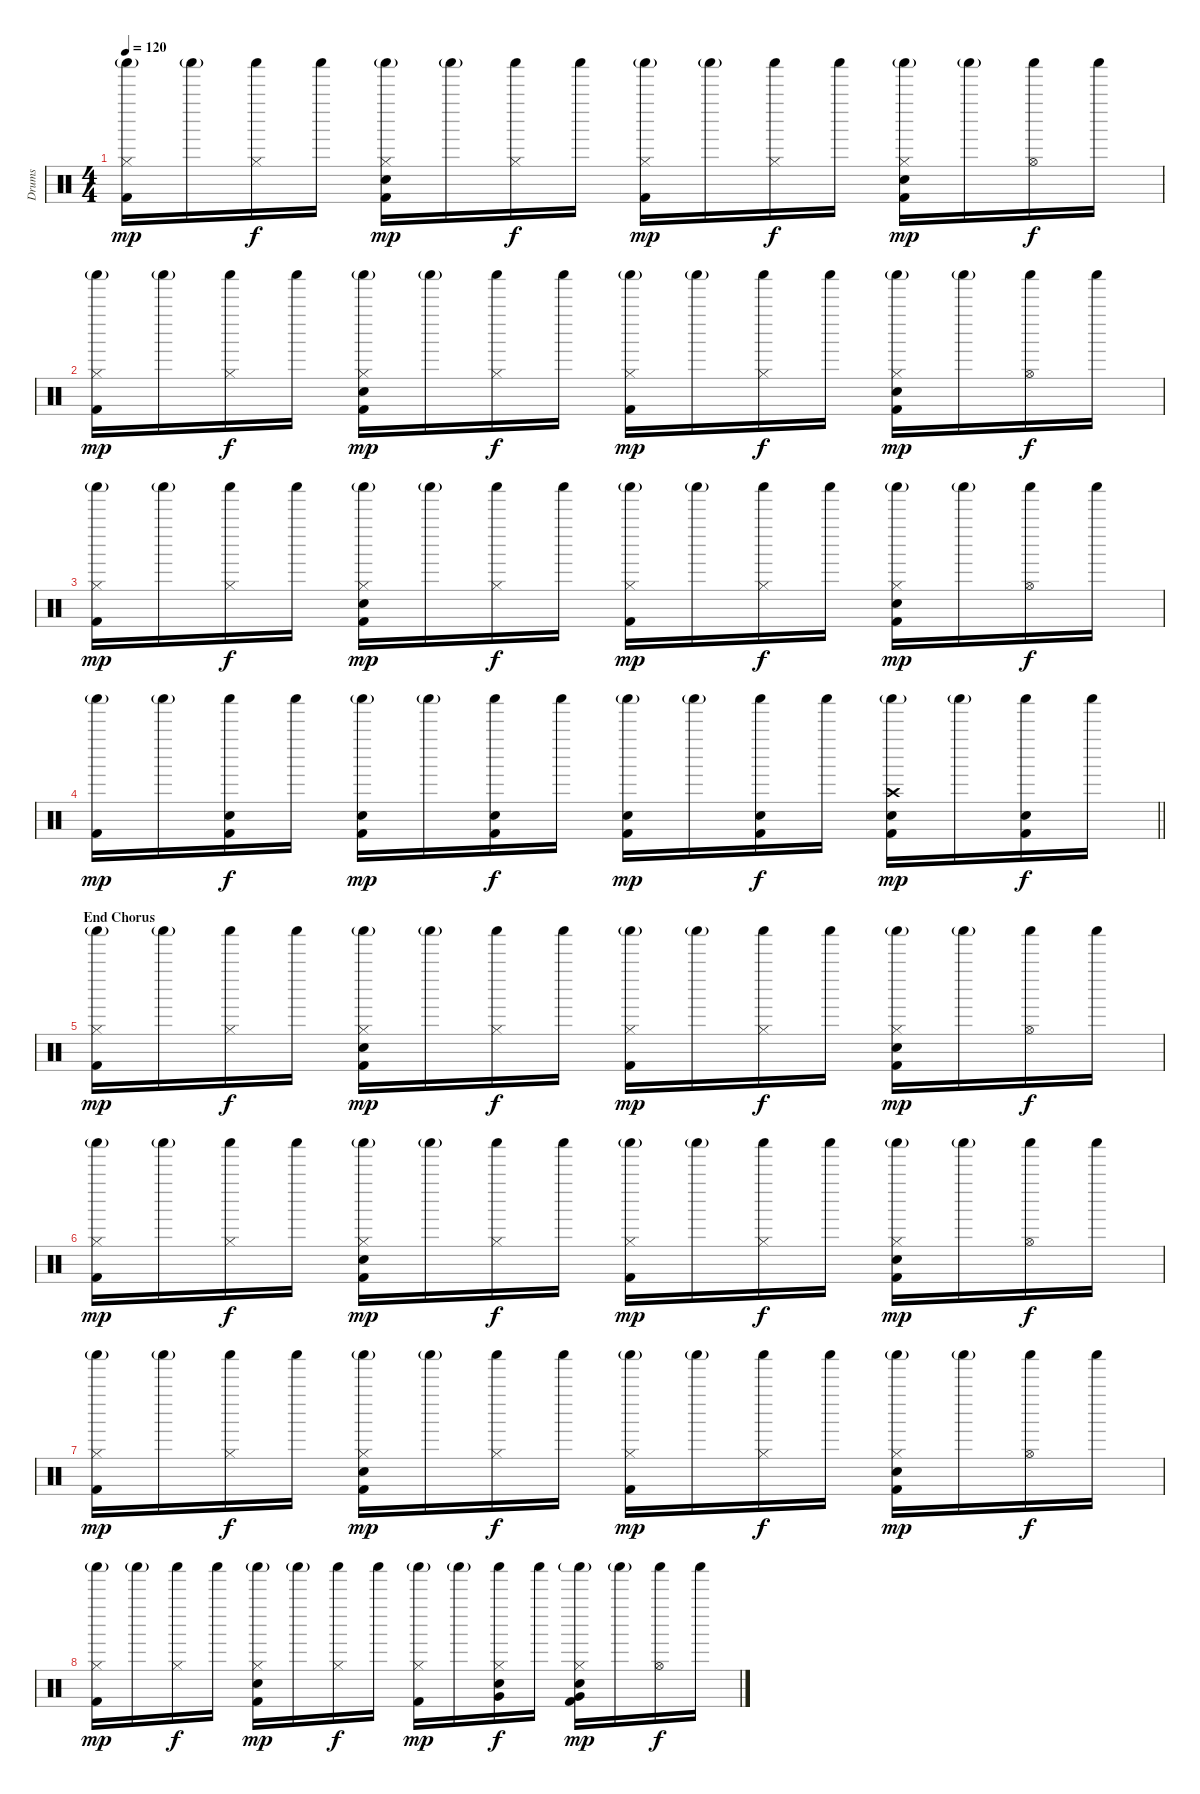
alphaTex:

\track ("Drums" "Drums") {instrument percussion}
\staff {score}
\articulation defaults
\ts (4 4)
\tempo 120
\clef neutral
\ks c
("Hi-Hat (closed)" "Shaker (hit)"{g} "Kick (hit) 2").16{dy mp} "Shaker (hit)"{g}.16 ("Hi-Hat (closed)" "Shaker (hit)").16{dy f} "Shaker (hit)".16 ("Hi-Hat (closed)" "Shaker (hit)"{g} "Electric Snare (hit)" "Kick (hit) 2").16{dy mp} "Shaker (hit)"{g}.16 ("Hi-Hat (closed)" "Shaker (hit)").16{dy f} "Shaker (hit)".16 ("Hi-Hat (closed)" "Shaker (hit)"{g} "Kick (hit) 2").16{dy mp} "Shaker (hit)"{g}.16 ("Hi-Hat (closed)" "Shaker (hit)").16{dy f} "Shaker (hit)".16 ("Hi-Hat (closed)" "Shaker (hit)"{g} "Electric Snare (hit)" "Kick (hit) 2").16{dy mp} "Shaker (hit)"{g}.16 ("Hi-Hat (open)" "Shaker (hit)").16{dy f} "Shaker (hit)".16 |
("Hi-Hat (closed)" "Shaker (hit)"{g} "Kick (hit) 2").16{dy mp} "Shaker (hit)"{g}.16 ("Hi-Hat (closed)" "Shaker (hit)").16{dy f} "Shaker (hit)".16 ("Hi-Hat (closed)" "Shaker (hit)"{g} "Electric Snare (hit)" "Kick (hit) 2").16{dy mp} "Shaker (hit)"{g}.16 ("Hi-Hat (closed)" "Shaker (hit)").16{dy f} "Shaker (hit)".16 ("Hi-Hat (closed)" "Shaker (hit)"{g} "Kick (hit) 2").16{dy mp} "Shaker (hit)"{g}.16 ("Hi-Hat (closed)" "Shaker (hit)").16{dy f} "Shaker (hit)".16 ("Hi-Hat (closed)" "Shaker (hit)"{g} "Electric Snare (hit)" "Kick (hit) 2").16{dy mp} "Shaker (hit)"{g}.16 ("Hi-Hat (open)" "Shaker (hit)").16{dy f} "Shaker (hit)".16 |
("Hi-Hat (closed)" "Shaker (hit)"{g} "Kick (hit) 2").16{dy mp} "Shaker (hit)"{g}.16 ("Hi-Hat (closed)" "Shaker (hit)").16{dy f} "Shaker (hit)".16 ("Hi-Hat (closed)" "Shaker (hit)"{g} "Electric Snare (hit)" "Kick (hit) 2").16{dy mp} "Shaker (hit)"{g}.16 ("Hi-Hat (closed)" "Shaker (hit)").16{dy f} "Shaker (hit)".16 ("Hi-Hat (closed)" "Shaker (hit)"{g} "Kick (hit) 2").16{dy mp} "Shaker (hit)"{g}.16 ("Hi-Hat (closed)" "Shaker (hit)").16{dy f} "Shaker (hit)".16 ("Hi-Hat (closed)" "Shaker (hit)"{g} "Electric Snare (hit)" "Kick (hit) 2").16{dy mp} "Shaker (hit)"{g}.16 ("Hi-Hat (open)" "Shaker (hit)").16{dy f} "Shaker (hit)".16 |
\barLineRight lightlight
("Shaker (hit)"{g} "Kick (hit) 2").16{dy mp} "Shaker (hit)"{g}.16 ("Shaker (hit)" "Electric Snare (hit)" "Kick (hit) 2").16{dy f} "Shaker (hit)".16 ("Shaker (hit)"{g} "Electric Snare (hit)" "Kick (hit) 2").16{dy mp} "Shaker (hit)"{g}.16 ("Shaker (hit)" "Electric Snare (hit)" "Kick (hit) 2").16{dy f} "Shaker (hit)".16 ("Shaker (hit)"{g} "Electric Snare (hit)" "Kick (hit) 2").16{dy mp} "Shaker (hit)"{g}.16 ("Shaker (hit)" "Electric Snare (hit)" "Kick (hit) 2").16{dy f} "Shaker (hit)".16 ("Crash high (hit)" "Shaker (hit)"{g} "Electric Snare (hit)" "Kick (hit) 2").16{dy mp} "Shaker (hit)"{g}.16 ("Shaker (hit)" "Electric Snare (hit)" "Kick (hit) 2").16{dy f} "Shaker (hit)".16 |
\section ("" "End Chorus")
("Hi-Hat (closed)" "Shaker (hit)"{g} "Kick (hit) 2").16{dy mp} "Shaker (hit)"{g}.16 ("Hi-Hat (closed)" "Shaker (hit)").16{dy f} "Shaker (hit)".16 ("Hi-Hat (closed)" "Shaker (hit)"{g} "Electric Snare (hit)" "Kick (hit) 2").16{dy mp} "Shaker (hit)"{g}.16 ("Hi-Hat (closed)" "Shaker (hit)").16{dy f} "Shaker (hit)".16 ("Hi-Hat (closed)" "Shaker (hit)"{g} "Kick (hit) 2").16{dy mp} "Shaker (hit)"{g}.16 ("Hi-Hat (closed)" "Shaker (hit)").16{dy f} "Shaker (hit)".16 ("Hi-Hat (closed)" "Shaker (hit)"{g} "Electric Snare (hit)" "Kick (hit) 2").16{dy mp} "Shaker (hit)"{g}.16 ("Hi-Hat (open)" "Shaker (hit)").16{dy f} "Shaker (hit)".16 |
("Hi-Hat (closed)" "Shaker (hit)"{g} "Kick (hit) 2").16{dy mp} "Shaker (hit)"{g}.16 ("Hi-Hat (closed)" "Shaker (hit)").16{dy f} "Shaker (hit)".16 ("Hi-Hat (closed)" "Shaker (hit)"{g} "Electric Snare (hit)" "Kick (hit) 2").16{dy mp} "Shaker (hit)"{g}.16 ("Hi-Hat (closed)" "Shaker (hit)").16{dy f} "Shaker (hit)".16 ("Hi-Hat (closed)" "Shaker (hit)"{g} "Kick (hit) 2").16{dy mp} "Shaker (hit)"{g}.16 ("Hi-Hat (closed)" "Shaker (hit)").16{dy f} "Shaker (hit)".16 ("Hi-Hat (closed)" "Shaker (hit)"{g} "Electric Snare (hit)" "Kick (hit) 2").16{dy mp} "Shaker (hit)"{g}.16 ("Hi-Hat (open)" "Shaker (hit)").16{dy f} "Shaker (hit)".16 |
("Hi-Hat (closed)" "Shaker (hit)"{g} "Kick (hit) 2").16{dy mp} "Shaker (hit)"{g}.16 ("Hi-Hat (closed)" "Shaker (hit)").16{dy f} "Shaker (hit)".16 ("Hi-Hat (closed)" "Shaker (hit)"{g} "Electric Snare (hit)" "Kick (hit) 2").16{dy mp} "Shaker (hit)"{g}.16 ("Hi-Hat (closed)" "Shaker (hit)").16{dy f} "Shaker (hit)".16 ("Hi-Hat (closed)" "Shaker (hit)"{g} "Kick (hit) 2").16{dy mp} "Shaker (hit)"{g}.16 ("Hi-Hat (closed)" "Shaker (hit)").16{dy f} "Shaker (hit)".16 ("Hi-Hat (closed)" "Shaker (hit)"{g} "Electric Snare (hit)" "Kick (hit) 2").16{dy mp} "Shaker (hit)"{g}.16 ("Hi-Hat (open)" "Shaker (hit)").16{dy f} "Shaker (hit)".16 |
("Hi-Hat (closed)" "Shaker (hit)"{g} "Kick (hit) 2").16{dy mp} "Shaker (hit)"{g}.16 ("Hi-Hat (closed)" "Shaker (hit)").16{dy f} "Shaker (hit)".16 ("Hi-Hat (closed)" "Shaker (hit)"{g} "Electric Snare (hit)" "Kick (hit) 2").16{dy mp} "Shaker (hit)"{g}.16 ("Hi-Hat (closed)" "Shaker (hit)").16{dy f} "Shaker (hit)".16 ("Hi-Hat (closed)" "Shaker (hit)"{g} "Kick (hit) 2").16{dy mp} "Shaker (hit)"{g}.16 ("Hi-Hat (closed)" "Shaker (hit)" "Very Low Tom (hit)" "Electric Snare (hit)").16{dy f} "Shaker (hit)".16 ("Hi-Hat (closed)" "Shaker (hit)"{g} "Very Low Tom (hit)" "Electric Snare (hit)" "Kick (hit) 2").16{dy mp} "Shaker (hit)"{g}.16 ("Hi-Hat (open)" "Shaker (hit)").16{dy f} "Shaker (hit)".16
